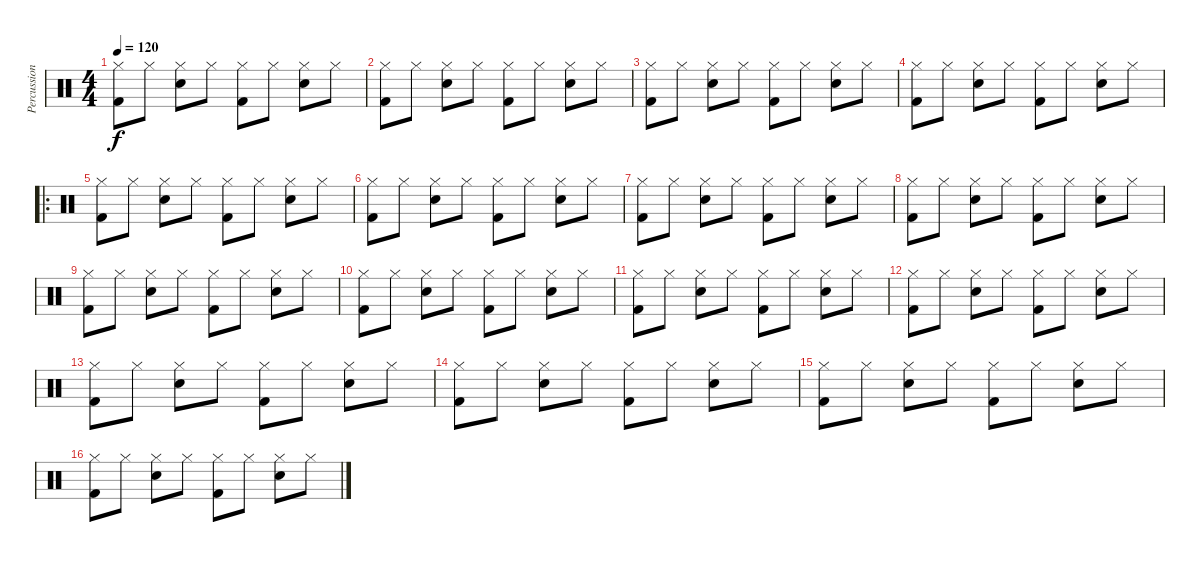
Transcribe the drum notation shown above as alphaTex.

\track ("Percussions" "Percussion") {instrument percussion}
\staff {score}
\articulation defaults
\ts (4 4)
\tempo 120
\clef neutral
\ks c
("Hi-Hat (closed)" "Kick (hit) 2").8{dy f} "Hi-Hat (closed)".8 ("Hi-Hat (closed)" "Snare (hit) 2").8 "Hi-Hat (closed)".8 ("Hi-Hat (closed)" "Kick (hit) 2").8 "Hi-Hat (closed)".8 ("Hi-Hat (closed)" "Snare (hit) 2").8 "Hi-Hat (closed)".8 |
("Hi-Hat (closed)" "Kick (hit) 2").8 "Hi-Hat (closed)".8 ("Hi-Hat (closed)" "Snare (hit) 2").8 "Hi-Hat (closed)".8 ("Hi-Hat (closed)" "Kick (hit) 2").8 "Hi-Hat (closed)".8 ("Hi-Hat (closed)" "Snare (hit) 2").8 "Hi-Hat (closed)".8 |
("Hi-Hat (closed)" "Kick (hit) 2").8 "Hi-Hat (closed)".8 ("Hi-Hat (closed)" "Snare (hit) 2").8 "Hi-Hat (closed)".8 ("Hi-Hat (closed)" "Kick (hit) 2").8 "Hi-Hat (closed)".8 ("Hi-Hat (closed)" "Snare (hit) 2").8 "Hi-Hat (closed)".8 |
("Hi-Hat (closed)" "Kick (hit) 2").8 "Hi-Hat (closed)".8 ("Hi-Hat (closed)" "Snare (hit) 2").8 "Hi-Hat (closed)".8 ("Hi-Hat (closed)" "Kick (hit) 2").8 "Hi-Hat (closed)".8 ("Hi-Hat (closed)" "Snare (hit) 2").8 "Hi-Hat (closed)".8 |
\ro
("Hi-Hat (closed)" "Kick (hit) 2").8 "Hi-Hat (closed)".8 ("Hi-Hat (closed)" "Snare (hit) 2").8 "Hi-Hat (closed)".8 ("Hi-Hat (closed)" "Kick (hit) 2").8 "Hi-Hat (closed)".8 ("Hi-Hat (closed)" "Snare (hit) 2").8 "Hi-Hat (closed)".8 |
("Hi-Hat (closed)" "Kick (hit) 2").8 "Hi-Hat (closed)".8 ("Hi-Hat (closed)" "Snare (hit) 2").8 "Hi-Hat (closed)".8 ("Hi-Hat (closed)" "Kick (hit) 2").8 "Hi-Hat (closed)".8 ("Hi-Hat (closed)" "Snare (hit) 2").8 "Hi-Hat (closed)".8 |
("Hi-Hat (closed)" "Kick (hit) 2").8 "Hi-Hat (closed)".8 ("Hi-Hat (closed)" "Snare (hit) 2").8 "Hi-Hat (closed)".8 ("Hi-Hat (closed)" "Kick (hit) 2").8 "Hi-Hat (closed)".8 ("Hi-Hat (closed)" "Snare (hit) 2").8 "Hi-Hat (closed)".8 |
("Hi-Hat (closed)" "Kick (hit) 2").8 "Hi-Hat (closed)".8 ("Hi-Hat (closed)" "Snare (hit) 2").8 "Hi-Hat (closed)".8 ("Hi-Hat (closed)" "Kick (hit) 2").8 "Hi-Hat (closed)".8 ("Hi-Hat (closed)" "Snare (hit) 2").8 "Hi-Hat (closed)".8 |
("Hi-Hat (closed)" "Kick (hit) 2").8 "Hi-Hat (closed)".8 ("Hi-Hat (closed)" "Snare (hit) 2").8 "Hi-Hat (closed)".8 ("Hi-Hat (closed)" "Kick (hit) 2").8 "Hi-Hat (closed)".8 ("Hi-Hat (closed)" "Snare (hit) 2").8 "Hi-Hat (closed)".8 |
("Hi-Hat (closed)" "Kick (hit) 2").8 "Hi-Hat (closed)".8 ("Hi-Hat (closed)" "Snare (hit) 2").8 "Hi-Hat (closed)".8 ("Hi-Hat (closed)" "Kick (hit) 2").8 "Hi-Hat (closed)".8 ("Hi-Hat (closed)" "Snare (hit) 2").8 "Hi-Hat (closed)".8 |
("Hi-Hat (closed)" "Kick (hit) 2").8 "Hi-Hat (closed)".8 ("Hi-Hat (closed)" "Snare (hit) 2").8 "Hi-Hat (closed)".8 ("Hi-Hat (closed)" "Kick (hit) 2").8 "Hi-Hat (closed)".8 ("Hi-Hat (closed)" "Snare (hit) 2").8 "Hi-Hat (closed)".8 |
("Hi-Hat (closed)" "Kick (hit) 2").8 "Hi-Hat (closed)".8 ("Hi-Hat (closed)" "Snare (hit) 2").8 "Hi-Hat (closed)".8 ("Hi-Hat (closed)" "Kick (hit) 2").8 "Hi-Hat (closed)".8 ("Hi-Hat (closed)" "Snare (hit) 2").8 "Hi-Hat (closed)".8 |
("Hi-Hat (closed)" "Kick (hit) 2").8 "Hi-Hat (closed)".8 ("Hi-Hat (closed)" "Snare (hit) 2").8 "Hi-Hat (closed)".8 ("Hi-Hat (closed)" "Kick (hit) 2").8 "Hi-Hat (closed)".8 ("Hi-Hat (closed)" "Snare (hit) 2").8 "Hi-Hat (closed)".8 |
("Hi-Hat (closed)" "Kick (hit) 2").8 "Hi-Hat (closed)".8 ("Hi-Hat (closed)" "Snare (hit) 2").8 "Hi-Hat (closed)".8 ("Hi-Hat (closed)" "Kick (hit) 2").8 "Hi-Hat (closed)".8 ("Hi-Hat (closed)" "Snare (hit) 2").8 "Hi-Hat (closed)".8 |
("Hi-Hat (closed)" "Kick (hit) 2").8 "Hi-Hat (closed)".8 ("Hi-Hat (closed)" "Snare (hit) 2").8 "Hi-Hat (closed)".8 ("Hi-Hat (closed)" "Kick (hit) 2").8 "Hi-Hat (closed)".8 ("Hi-Hat (closed)" "Snare (hit) 2").8 "Hi-Hat (closed)".8 |
("Hi-Hat (closed)" "Kick (hit) 2").8 "Hi-Hat (closed)".8 ("Hi-Hat (closed)" "Snare (hit) 2").8 "Hi-Hat (closed)".8 ("Hi-Hat (closed)" "Kick (hit) 2").8 "Hi-Hat (closed)".8 ("Hi-Hat (closed)" "Snare (hit) 2").8 "Hi-Hat (closed)".8
